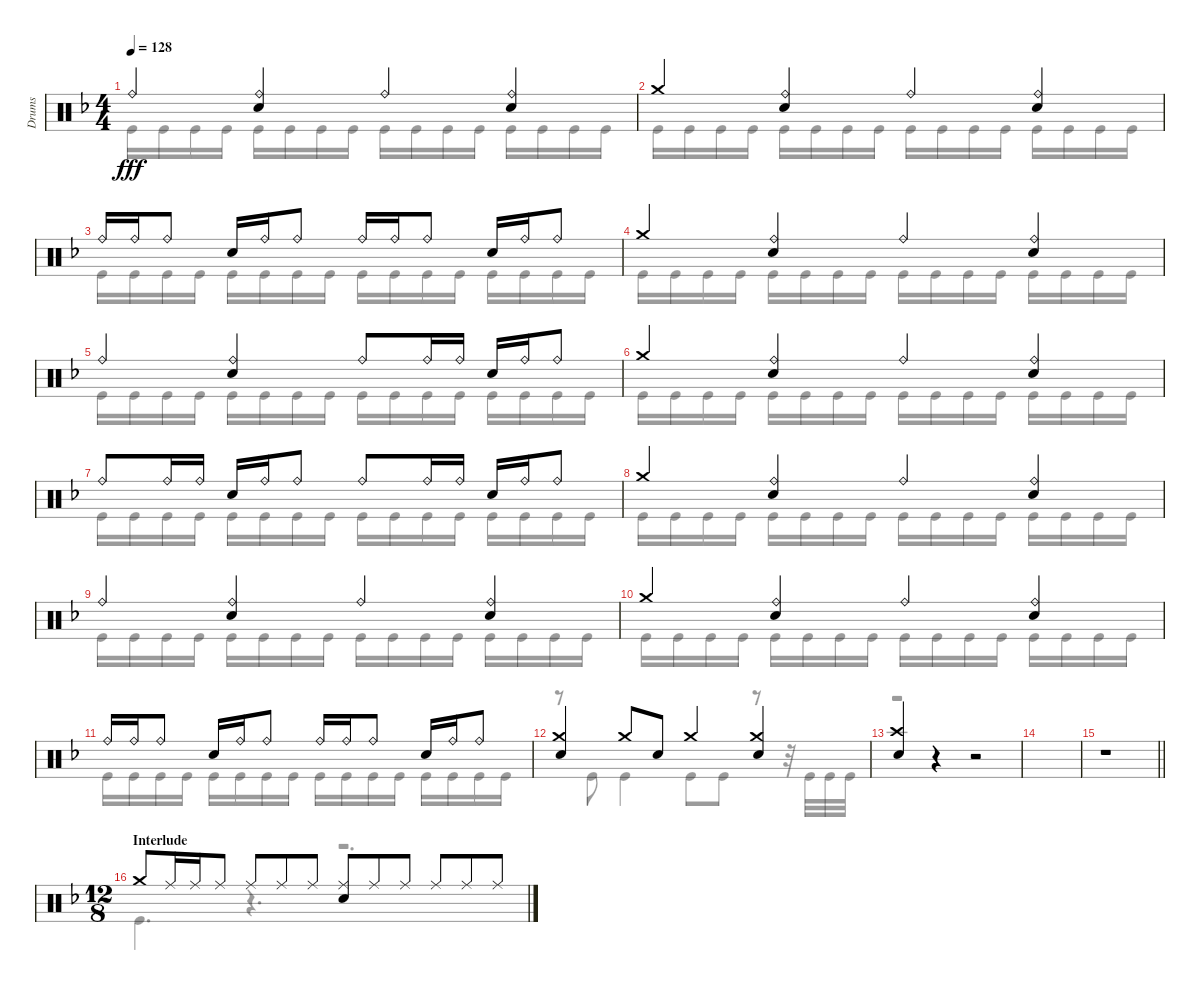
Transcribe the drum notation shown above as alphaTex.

\track ("Drums" "Drums") {instrument percussion}
\staff {score}
\articulation defaults
\voice
\ts (4 4)
\tempo 128
\clef neutral
\ks dminor "Ride (bell)".4{dy fff}
("Ride (bell)" "Electric Snare (hit)").4 "Ride (bell)".4 ("Ride (bell)" "Electric Snare (hit)").4 |
"Crash medium (hit)".4 ("Ride (bell)" "Electric Snare (hit)").4 "Ride (bell)".4 ("Ride (bell)" "Electric Snare (hit)").4 |
"Ride (bell)".16 "Ride (bell)".16 "Ride (bell)".8 "Electric Snare (hit)".16 "Ride (bell)".16 "Ride (bell)".8 "Ride (bell)".16 "Ride (bell)".16 "Ride (bell)".8 "Electric Snare (hit)".16 "Ride (bell)".16 "Ride (bell)".8 |
"Crash medium (hit)".4 ("Ride (bell)" "Electric Snare (hit)").4 "Ride (bell)".4 ("Ride (bell)" "Electric Snare (hit)").4 |
"Ride (bell)".4 ("Ride (bell)" "Electric Snare (hit)").4 "Ride (bell)".8 "Ride (bell)".16 "Ride (bell)".16 "Electric Snare (hit)".16 "Ride (bell)".16 "Ride (bell)".8 |
"Crash medium (hit)".4 ("Ride (bell)" "Electric Snare (hit)").4 "Ride (bell)".4 ("Ride (bell)" "Electric Snare (hit)").4 |
"Ride (bell)".8 "Ride (bell)".16 "Ride (bell)".16 "Electric Snare (hit)".16 "Ride (bell)".16 "Ride (bell)".8 "Ride (bell)".8 "Ride (bell)".16 "Ride (bell)".16 "Electric Snare (hit)".16 "Ride (bell)".16 "Ride (bell)".8 |
"Crash medium (hit)".4 ("Ride (bell)" "Electric Snare (hit)").4 "Ride (bell)".4 ("Ride (bell)" "Electric Snare (hit)").4 |
"Ride (bell)".4 ("Ride (bell)" "Electric Snare (hit)").4 "Ride (bell)".4 ("Ride (bell)" "Electric Snare (hit)").4 |
"Crash medium (hit)".4 ("Ride (bell)" "Electric Snare (hit)").4 "Ride (bell)".4 ("Ride (bell)" "Electric Snare (hit)").4 |
"Ride (bell)".16 "Ride (bell)".16 "Ride (bell)".8 "Electric Snare (hit)".16 "Ride (bell)".16 "Ride (bell)".8 "Ride (bell)".16 "Ride (bell)".16 "Ride (bell)".8 "Electric Snare (hit)".16 "Ride (bell)".16 "Ride (bell)".8 |
("Crash medium (hit)" "Electric Snare (hit)").4 "Crash medium (hit)".8 "Electric Snare (hit)".8 "Crash medium (hit)".4 ("Crash medium (hit)" "Electric Snare (hit)").4 |
("Crash high (hit)" "Electric Snare (hit)").4 r.4 r.2 |
|
\barLineRight lightlight
r.1 |
\ts (12 8)
\section ("" "Interlude")
"Crash medium (hit)".8 "Ride (middle)".16 "Ride (middle)".16 "Ride (middle)".8 "Ride (middle)".8 "Ride (middle)".8 "Ride (middle)".8 ("Ride (middle)" "Electric Snare (hit)").8 "Ride (middle)".8 "Ride (middle)".8 "Ride (middle)".8 "Ride (middle)".8 "Ride (middle)".8
\voice
\clef neutral
\ottava regular
\simile none
\ks dminor "Kick (hit)".16{dy fff} "Kick (hit)".16 "Kick (hit)".16 "Kick (hit)".16 "Kick (hit)".16 "Kick (hit)".16 "Kick (hit)".16 "Kick (hit)".16 "Kick (hit)".16 "Kick (hit)".16 "Kick (hit)".16 "Kick (hit)".16 "Kick (hit)".16 "Kick (hit)".16 "Kick (hit)".16 "Kick (hit)".16
|
"Kick (hit)".16 "Kick (hit)".16 "Kick (hit)".16 "Kick (hit)".16 "Kick (hit)".16 "Kick (hit)".16 "Kick (hit)".16 "Kick (hit)".16 "Kick (hit)".16 "Kick (hit)".16 "Kick (hit)".16 "Kick (hit)".16 "Kick (hit)".16 "Kick (hit)".16 "Kick (hit)".16 "Kick (hit)".16 |
"Kick (hit)".16 "Kick (hit)".16 "Kick (hit)".16 "Kick (hit)".16 "Kick (hit)".16 "Kick (hit)".16 "Kick (hit)".16 "Kick (hit)".16 "Kick (hit)".16 "Kick (hit)".16 "Kick (hit)".16 "Kick (hit)".16 "Kick (hit)".16 "Kick (hit)".16 "Kick (hit)".16 "Kick (hit)".16 |
"Kick (hit)".16 "Kick (hit)".16 "Kick (hit)".16 "Kick (hit)".16 "Kick (hit)".16 "Kick (hit)".16 "Kick (hit)".16 "Kick (hit)".16 "Kick (hit)".16 "Kick (hit)".16 "Kick (hit)".16 "Kick (hit)".16 "Kick (hit)".16 "Kick (hit)".16 "Kick (hit)".16 "Kick (hit)".16 |
"Kick (hit)".16 "Kick (hit)".16 "Kick (hit)".16 "Kick (hit)".16 "Kick (hit)".16 "Kick (hit)".16 "Kick (hit)".16 "Kick (hit)".16 "Kick (hit)".16 "Kick (hit)".16 "Kick (hit)".16 "Kick (hit)".16 "Kick (hit)".16 "Kick (hit)".16 "Kick (hit)".16 "Kick (hit)".16 |
"Kick (hit)".16 "Kick (hit)".16 "Kick (hit)".16 "Kick (hit)".16 "Kick (hit)".16 "Kick (hit)".16 "Kick (hit)".16 "Kick (hit)".16 "Kick (hit)".16 "Kick (hit)".16 "Kick (hit)".16 "Kick (hit)".16 "Kick (hit)".16 "Kick (hit)".16 "Kick (hit)".16 "Kick (hit)".16 |
"Kick (hit)".16 "Kick (hit)".16 "Kick (hit)".16 "Kick (hit)".16 "Kick (hit)".16 "Kick (hit)".16 "Kick (hit)".16 "Kick (hit)".16 "Kick (hit)".16 "Kick (hit)".16 "Kick (hit)".16 "Kick (hit)".16 "Kick (hit)".16 "Kick (hit)".16 "Kick (hit)".16 "Kick (hit)".16 |
"Kick (hit)".16 "Kick (hit)".16 "Kick (hit)".16 "Kick (hit)".16 "Kick (hit)".16 "Kick (hit)".16 "Kick (hit)".16 "Kick (hit)".16 "Kick (hit)".16 "Kick (hit)".16 "Kick (hit)".16 "Kick (hit)".16 "Kick (hit)".16 "Kick (hit)".16 "Kick (hit)".16 "Kick (hit)".16 |
"Kick (hit)".16 "Kick (hit)".16 "Kick (hit)".16 "Kick (hit)".16 "Kick (hit)".16 "Kick (hit)".16 "Kick (hit)".16 "Kick (hit)".16 "Kick (hit)".16 "Kick (hit)".16 "Kick (hit)".16 "Kick (hit)".16 "Kick (hit)".16 "Kick (hit)".16 "Kick (hit)".16 "Kick (hit)".16 |
"Kick (hit)".16 "Kick (hit)".16 "Kick (hit)".16 "Kick (hit)".16 "Kick (hit)".16 "Kick (hit)".16 "Kick (hit)".16 "Kick (hit)".16 "Kick (hit)".16 "Kick (hit)".16 "Kick (hit)".16 "Kick (hit)".16 "Kick (hit)".16 "Kick (hit)".16 "Kick (hit)".16 "Kick (hit)".16 |
"Kick (hit)".16 "Kick (hit)".16 "Kick (hit)".16 "Kick (hit)".16 "Kick (hit)".16 "Kick (hit)".16 "Kick (hit)".16 "Kick (hit)".16 "Kick (hit)".16 "Kick (hit)".16 "Kick (hit)".16 "Kick (hit)".16 "Kick (hit)".16 "Kick (hit)".16 "Kick (hit)".16 "Kick (hit)".16 |
r.8 "Kick (hit)".8 "Kick (hit)".4 "Kick (hit)".8 "Kick (hit)".8 r.8 r.32 "Kick (hit)".32 "Kick (hit)".32 "Kick (hit)".32 |
r.1 |
|
\barLineRight lightlight
r.1 |
"Kick (hit)".4{d} r.4{d} r.2{d}
